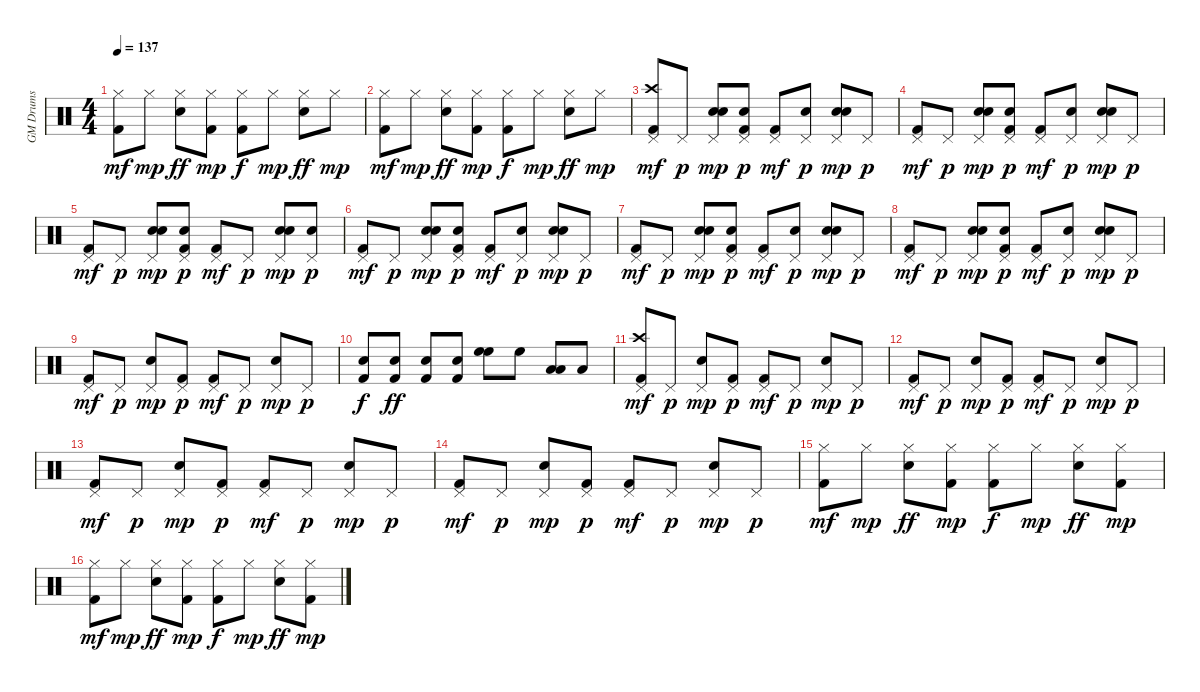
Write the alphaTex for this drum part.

\track ("GM Drums            " "GM Drums  ") {instrument percussion}
\staff {score}
\articulation defaults
\ts (4 4)
\tempo 137
\clef neutral
\ks c
("Kick (hit) 2" "Hi-Hat (closed)").8{dy mf} "Hi-Hat (closed)".8{dy mp} ("Snare (hit) 2" "Hi-Hat (closed)").8{dy ff} ("Hi-Hat (closed)" "Kick (hit) 2").8{dy mp} ("Kick (hit) 2" "Hi-Hat (closed)").8{dy f} "Hi-Hat (closed)".8{dy mp} ("Snare (hit) 2" "Hi-Hat (closed)").8{dy ff} "Hi-Hat (closed)".8{dy mp} |
("Kick (hit) 2" "Hi-Hat (closed)").8{dy mf} "Hi-Hat (closed)".8{dy mp} ("Snare (hit) 2" "Hi-Hat (closed)").8{dy ff} ("Hi-Hat (closed)" "Kick (hit) 2").8{dy mp} ("Kick (hit) 2" "Hi-Hat (closed)").8{dy f} "Hi-Hat (closed)".8{dy mp} ("Snare (hit) 2" "Hi-Hat (closed)").8{dy ff} "Hi-Hat (closed)".8{dy mp} |
("Crash high (hit)" "Kick (hit) 2" "Pedal Hi-Hat (hit)").8{dy mf} "Pedal Hi-Hat (hit)".8{dy p} ("Hand Clap (hit)" "Snare (hit) 2" "Pedal Hi-Hat (hit)").8{dy mp} ("Hand Clap (hit)" "Pedal Hi-Hat (hit)" "Kick (hit) 2").8{dy p} ("Kick (hit) 2" "Pedal Hi-Hat (hit)").8{dy mf} ("Hand Clap (hit)" "Pedal Hi-Hat (hit)").8{dy p} ("Hand Clap (hit)" "Snare (hit) 2" "Pedal Hi-Hat (hit)").8{dy mp} "Pedal Hi-Hat (hit)".8{dy p} |
("Kick (hit) 2" "Pedal Hi-Hat (hit)").8{dy mf} "Pedal Hi-Hat (hit)".8{dy p} ("Hand Clap (hit)" "Snare (hit) 2" "Pedal Hi-Hat (hit)").8{dy mp} ("Hand Clap (hit)" "Pedal Hi-Hat (hit)" "Kick (hit) 2").8{dy p} ("Kick (hit) 2" "Pedal Hi-Hat (hit)").8{dy mf} ("Hand Clap (hit)" "Pedal Hi-Hat (hit)").8{dy p} ("Hand Clap (hit)" "Snare (hit) 2" "Pedal Hi-Hat (hit)").8{dy mp} "Pedal Hi-Hat (hit)".8{dy p} |
("Kick (hit) 2" "Pedal Hi-Hat (hit)").8{dy mf} "Pedal Hi-Hat (hit)".8{dy p} ("Hand Clap (hit)" "Snare (hit) 2" "Pedal Hi-Hat (hit)").8{dy mp} ("Hand Clap (hit)" "Pedal Hi-Hat (hit)" "Kick (hit) 2").8{dy p} ("Kick (hit) 2" "Pedal Hi-Hat (hit)").8{dy mf} "Pedal Hi-Hat (hit)".8{dy p} ("Hand Clap (hit)" "Snare (hit) 2" "Pedal Hi-Hat (hit)").8{dy mp} ("Hand Clap (hit)" "Pedal Hi-Hat (hit)").8{dy p} |
("Kick (hit) 2" "Pedal Hi-Hat (hit)").8{dy mf} "Pedal Hi-Hat (hit)".8{dy p} ("Hand Clap (hit)" "Snare (hit) 2" "Pedal Hi-Hat (hit)").8{dy mp} ("Hand Clap (hit)" "Pedal Hi-Hat (hit)" "Kick (hit) 2").8{dy p} ("Kick (hit) 2" "Pedal Hi-Hat (hit)").8{dy mf} ("Hand Clap (hit)" "Pedal Hi-Hat (hit)").8{dy p} ("Hand Clap (hit)" "Snare (hit) 2" "Pedal Hi-Hat (hit)").8{dy mp} "Pedal Hi-Hat (hit)".8{dy p} |
("Kick (hit) 2" "Pedal Hi-Hat (hit)").8{dy mf} "Pedal Hi-Hat (hit)".8{dy p} ("Hand Clap (hit)" "Snare (hit) 2" "Pedal Hi-Hat (hit)").8{dy mp} ("Hand Clap (hit)" "Pedal Hi-Hat (hit)" "Kick (hit) 2").8{dy p} ("Kick (hit) 2" "Pedal Hi-Hat (hit)").8{dy mf} ("Hand Clap (hit)" "Pedal Hi-Hat (hit)").8{dy p} ("Hand Clap (hit)" "Snare (hit) 2" "Pedal Hi-Hat (hit)").8{dy mp} "Pedal Hi-Hat (hit)".8{dy p} |
("Kick (hit) 2" "Pedal Hi-Hat (hit)").8{dy mf} "Pedal Hi-Hat (hit)".8{dy p} ("Hand Clap (hit)" "Snare (hit) 2" "Pedal Hi-Hat (hit)").8{dy mp} ("Hand Clap (hit)" "Pedal Hi-Hat (hit)" "Kick (hit) 2").8{dy p} ("Kick (hit) 2" "Pedal Hi-Hat (hit)").8{dy mf} ("Hand Clap (hit)" "Pedal Hi-Hat (hit)").8{dy p} ("Hand Clap (hit)" "Snare (hit) 2" "Pedal Hi-Hat (hit)").8{dy mp} "Pedal Hi-Hat (hit)".8{dy p} |
("Kick (hit) 2" "Pedal Hi-Hat (hit)").8{dy mf} "Pedal Hi-Hat (hit)".8{dy p} ("Snare (hit) 2" "Pedal Hi-Hat (hit)").8{dy mp} ("Pedal Hi-Hat (hit)" "Kick (hit) 2").8{dy p} ("Kick (hit) 2" "Pedal Hi-Hat (hit)").8{dy mf} "Pedal Hi-Hat (hit)".8{dy p} ("Snare (hit) 2" "Pedal Hi-Hat (hit)").8{dy mp} "Pedal Hi-Hat (hit)".8{dy p} |
("Snare (hit) 2" "Kick (hit) 2").8{dy f} ("Kick (hit) 2" "Snare (hit) 2").8{dy ff} ("Kick (hit) 2" "Snare (hit) 2").8 ("Snare (hit) 2" "Kick (hit) 2").8 ("High Floor Tom (hit)" "High Floor Tom (hit)").8 "High Floor Tom (hit)".8 ("Low Floor Tom (hit)" "Low Floor Tom (hit)").8 "Low Floor Tom (hit)".8 |
("Crash high (hit)" "Kick (hit) 2" "Pedal Hi-Hat (hit)").8{dy mf} "Pedal Hi-Hat (hit)".8{dy p} ("Snare (hit) 2" "Pedal Hi-Hat (hit)").8{dy mp} ("Pedal Hi-Hat (hit)" "Kick (hit) 2").8{dy p} ("Kick (hit) 2" "Pedal Hi-Hat (hit)").8{dy mf} "Pedal Hi-Hat (hit)".8{dy p} ("Snare (hit) 2" "Pedal Hi-Hat (hit)").8{dy mp} "Pedal Hi-Hat (hit)".8{dy p} |
("Kick (hit) 2" "Pedal Hi-Hat (hit)").8{dy mf} "Pedal Hi-Hat (hit)".8{dy p} ("Snare (hit) 2" "Pedal Hi-Hat (hit)").8{dy mp} ("Pedal Hi-Hat (hit)" "Kick (hit) 2").8{dy p} ("Kick (hit) 2" "Pedal Hi-Hat (hit)").8{dy mf} "Pedal Hi-Hat (hit)".8{dy p} ("Snare (hit) 2" "Pedal Hi-Hat (hit)").8{dy mp} "Pedal Hi-Hat (hit)".8{dy p} |
("Kick (hit) 2" "Pedal Hi-Hat (hit)").8{dy mf} "Pedal Hi-Hat (hit)".8{dy p} ("Snare (hit) 2" "Pedal Hi-Hat (hit)").8{dy mp} ("Pedal Hi-Hat (hit)" "Kick (hit) 2").8{dy p} ("Kick (hit) 2" "Pedal Hi-Hat (hit)").8{dy mf} "Pedal Hi-Hat (hit)".8{dy p} ("Snare (hit) 2" "Pedal Hi-Hat (hit)").8{dy mp} "Pedal Hi-Hat (hit)".8{dy p} |
("Kick (hit) 2" "Pedal Hi-Hat (hit)").8{dy mf} "Pedal Hi-Hat (hit)".8{dy p} ("Snare (hit) 2" "Pedal Hi-Hat (hit)").8{dy mp} ("Pedal Hi-Hat (hit)" "Kick (hit) 2").8{dy p} ("Kick (hit) 2" "Pedal Hi-Hat (hit)").8{dy mf} "Pedal Hi-Hat (hit)".8{dy p} ("Snare (hit) 2" "Pedal Hi-Hat (hit)").8{dy mp} "Pedal Hi-Hat (hit)".8{dy p} |
("Kick (hit) 2" "Hi-Hat (closed)").8{dy mf} "Hi-Hat (closed)".8{dy mp} ("Snare (hit) 2" "Hi-Hat (closed)").8{dy ff} ("Hi-Hat (closed)" "Kick (hit) 2").8{dy mp} ("Kick (hit) 2" "Hi-Hat (closed)").8{dy f} "Hi-Hat (closed)".8{dy mp} ("Snare (hit) 2" "Hi-Hat (closed)").8{dy ff} ("Kick (hit) 2" "Hi-Hat (closed)").8{dy mp} |
("Kick (hit) 2" "Hi-Hat (closed)").8{dy mf} "Hi-Hat (closed)".8{dy mp} ("Snare (hit) 2" "Hi-Hat (closed)").8{dy ff} ("Hi-Hat (closed)" "Kick (hit) 2").8{dy mp} ("Kick (hit) 2" "Hi-Hat (closed)").8{dy f} "Hi-Hat (closed)".8{dy mp} ("Snare (hit) 2" "Hi-Hat (closed)").8{dy ff} ("Kick (hit) 2" "Hi-Hat (closed)").8{dy mp}
